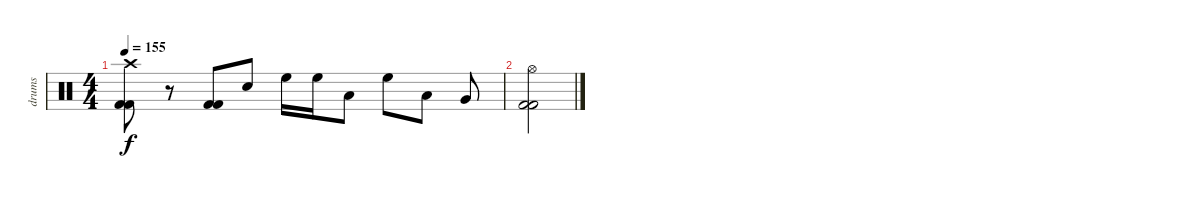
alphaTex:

\track ("drums" "drums") {instrument percussion}
\staff {score}
\articulation defaults
\ts (4 4)
\tempo 155
\clef neutral
\ks c
("Crash high (hit)" "Kick (hit) 2" "Kick (hit) 2").8{dy f} r.8 ("Kick (hit) 2" "Kick (hit) 2").8 "Electric Snare (hit)".8 "High Floor Tom (hit)".16 "High Floor Tom (hit)".16 "Low Tom (hit)".8 "High Floor Tom (hit)".8 "Low Tom (hit)".8 "Very Low Tom (hit)".8 |
("Hi-Hat (open)" "Kick (hit) 2" "Kick (hit) 2").2
